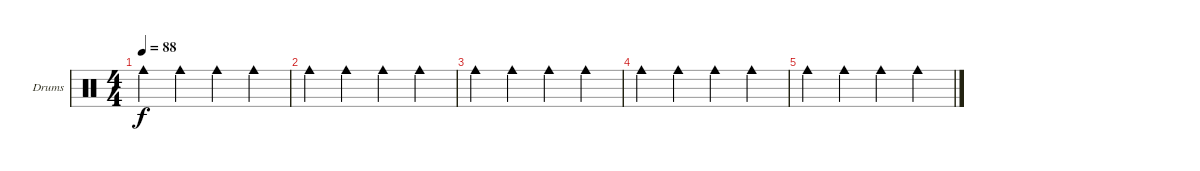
\bracketExtendMode groupsimilarinstruments
\firstSystemTrackNameOrientation horizontal
\otherSystemsTrackNameOrientation horizontal
\track ("Bell" "Drums") {instrument percussion}
\staff {score}
\articulation defaults
\ts (4 4)
\tempo 88
\clef neutral
\ks c "Cowbell medium (hit)".4{dy f} "Cowbell medium (hit)".4 "Cowbell medium (hit)".4 "Cowbell medium (hit)".4
|
"Cowbell medium (hit)".4 "Cowbell medium (hit)".4 "Cowbell medium (hit)".4 "Cowbell medium (hit)".4 |
"Cowbell medium (hit)".4 "Cowbell medium (hit)".4 "Cowbell medium (hit)".4 "Cowbell medium (hit)".4 |
"Cowbell medium (hit)".4 "Cowbell medium (hit)".4 "Cowbell medium (hit)".4 "Cowbell medium (hit)".4 |
"Cowbell medium (hit)".4 "Cowbell medium (hit)".4 "Cowbell medium (hit)".4 "Cowbell medium (hit)".4
